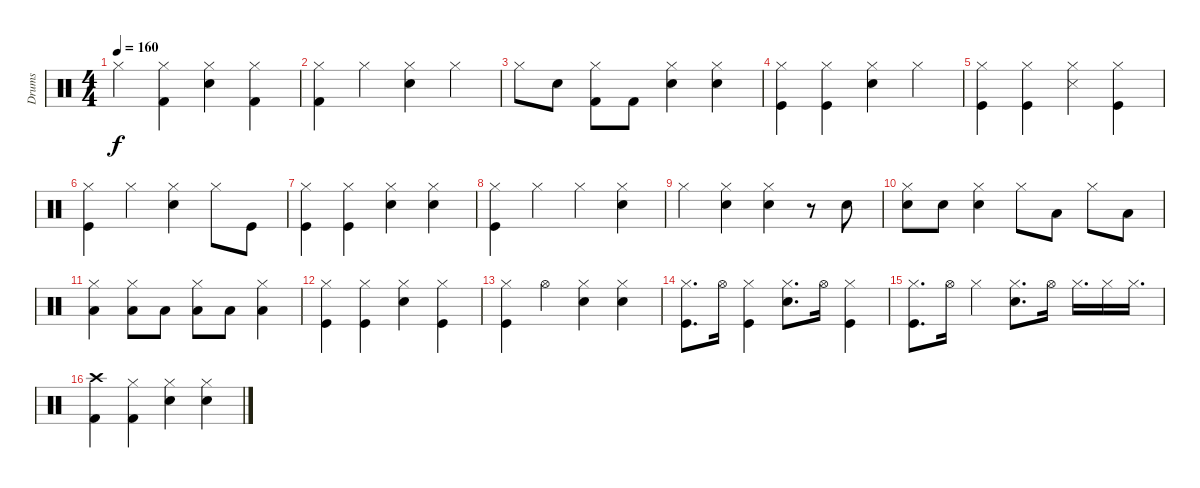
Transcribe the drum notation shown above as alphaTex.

\track ("Drums" "Drums") {instrument percussion}
\staff {score}
\articulation defaults
\ts (4 4)
\tempo 160
\clef neutral
\ks c "Hi-Hat (closed)".4{dy f}
("Hi-Hat (closed)" "Kick (hit) 2").4 ("Hi-Hat (closed)" "Snare (hit) 2").4 ("Hi-Hat (closed)" "Kick (hit) 2").4 |
("Kick (hit) 2" "Hi-Hat (closed)").4 "Hi-Hat (closed)".4 ("Snare (hit) 2" "Hi-Hat (closed)").4 "Hi-Hat (closed)".4 |
"Hi-Hat (closed)".8 "Snare (hit) 2".8 ("Kick (hit) 2" "Hi-Hat (closed)").8 "Kick (hit) 2".8 ("Snare (hit) 2" "Hi-Hat (closed)").4 ("Snare (hit) 2" "Hi-Hat (closed)").4 |
("Kick (hit)" "Hi-Hat (closed)").4 ("Kick (hit)" "Hi-Hat (closed)").4 ("Snare (hit) 2" "Hi-Hat (closed)").4 "Hi-Hat (closed)".4 |
("Kick (hit)" "Hi-Hat (closed)").4 ("Kick (hit)" "Hi-Hat (closed)").4 ("Snare (side stick) 3" "Hi-Hat (closed)").4 ("Kick (hit)" "Hi-Hat (closed)").4 |
("Kick (hit)" "Hi-Hat (closed)").4 "Hi-Hat (closed)".4 ("Snare (hit) 2" "Hi-Hat (closed)").4 "Hi-Hat (closed)".8 "Kick (hit)".8 |
("Kick (hit)" "Hi-Hat (closed)").4 ("Kick (hit)" "Hi-Hat (closed)").4 ("Snare (hit) 2" "Hi-Hat (closed)").4 ("Snare (hit) 2" "Hi-Hat (closed)").4 |
("Kick (hit)" "Hi-Hat (closed)").4 "Hi-Hat (closed)".4 "Hi-Hat (closed)".4 ("Snare (hit) 2" "Hi-Hat (closed)").4 |
"Hi-Hat (closed)".4 ("Snare (hit) 2" "Hi-Hat (closed)").4 ("Snare (hit) 2" "Hi-Hat (closed)").4 r.8 "Snare (hit) 2".8 |
("Snare (hit) 2" "Hi-Hat (closed)").8 "Snare (hit) 2".8 ("Snare (hit) 2" "Hi-Hat (closed)").4 "Hi-Hat (closed)".8 "Low Tom (hit)".8 "Hi-Hat (closed)".8 "Low Tom (hit)".8 |
("Hi-Hat (closed)" "Low Tom (hit)").4 ("Low Tom (hit)" "Hi-Hat (closed)").8 "Low Tom (hit)".8 ("Low Tom (hit)" "Hi-Hat (closed)").8 "Low Tom (hit)".8 ("Low Tom (hit)" "Hi-Hat (closed)").4 |
("Kick (hit)" "Hi-Hat (closed)").4 ("Kick (hit)" "Hi-Hat (closed)").4 ("Snare (hit) 2" "Hi-Hat (closed)").4 ("Kick (hit)" "Hi-Hat (closed)").4 |
("Kick (hit)" "Hi-Hat (closed)").4 "Hi-Hat (open)".4 ("Snare (hit) 2" "Hi-Hat (closed)").4 ("Snare (hit) 2" "Hi-Hat (closed)").4 |
("Kick (hit)" "Hi-Hat (closed)").8{d} "Hi-Hat (open)".16 ("Kick (hit)" "Hi-Hat (closed)").4 ("Snare (hit) 2" "Hi-Hat (closed)").8{d} "Hi-Hat (open)".16 ("Kick (hit)" "Hi-Hat (closed)").4 |
("Kick (hit)" "Hi-Hat (closed)").8{d} "Hi-Hat (open)".16 "Hi-Hat (closed)".4 ("Snare (hit) 2" "Hi-Hat (closed)").8{d} "Hi-Hat (open)".16 "Hi-Hat (closed)".16{d} "Hi-Hat (closed)".16 "Hi-Hat (closed)".16{d} |
("Kick (hit) 2" "Crash high (hit)").4 ("Hi-Hat (closed)" "Kick (hit) 2").4 ("Hi-Hat (closed)" "Snare (hit) 2").4 ("Hi-Hat (closed)" "Snare (hit) 2").4
